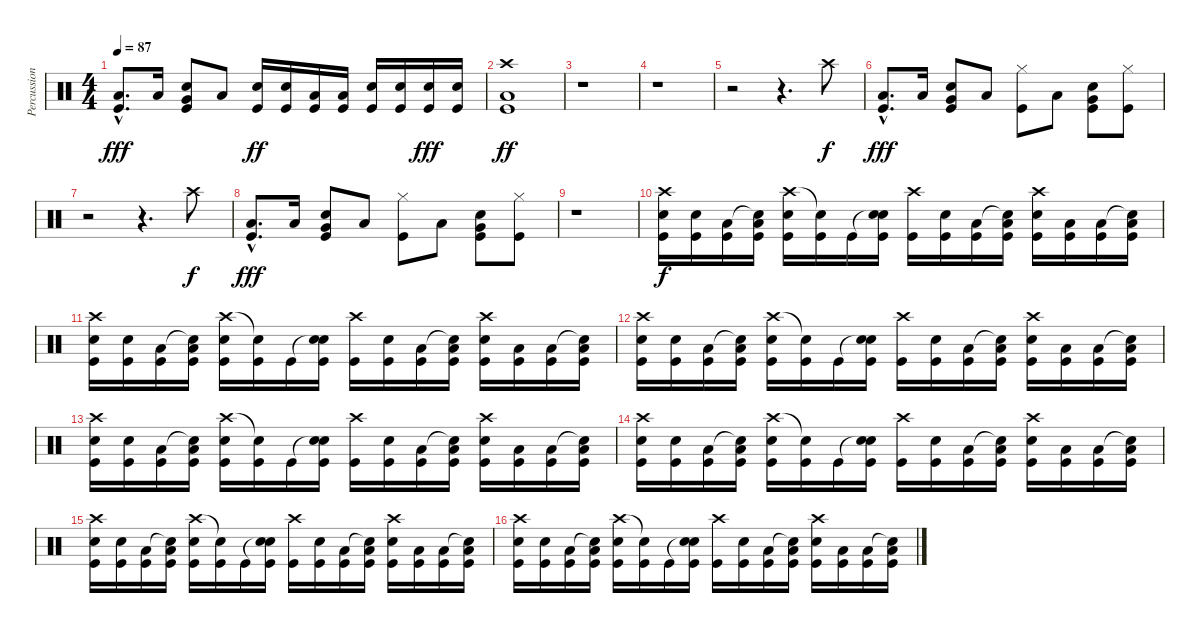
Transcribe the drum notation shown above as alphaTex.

\track ("Percussions" "Percussion") {instrument percussion}
\staff {score}
\articulation defaults
\ts (4 4)
\tempo 87
\clef neutral
\ks c
("Low Floor Tom (hit)"{hac} "Kick (hit)"{hac}).8{d dy fff} "Low Floor Tom (hit)".16 ("Snare (hit) 2" "Very Low Tom (hit)" "Kick (hit)").8 "Low Floor Tom (hit)".8 ("Snare (hit) 2" "Kick (hit)").16{dy ff} ("Snare (hit) 2" "Kick (hit)").16 ("Low Floor Tom (hit)" "Kick (hit)").16 ("Low Floor Tom (hit)" "Kick (hit)").16 ("Snare (hit) 2" "Kick (hit)").16 ("Snare (hit) 2" "Kick (hit)").16 ("Snare (hit) 2" "Kick (hit)").16{dy fff} ("Snare (hit) 2" "Kick (hit)").16 |
("Crash high (hit)" "Low Floor Tom (hit)" "Kick (hit)").1{dy ff} |
r.1 |
r.1 |
r.2 r.4{d} "Crash high (hit)".8{dy f} |
("Low Floor Tom (hit)"{hac} "Kick (hit)"{hac}).8{d dy fff} "Low Floor Tom (hit)".16 ("Snare (hit) 2" "Very Low Tom (hit)" "Kick (hit)").8 "Low Floor Tom (hit)".8 ("Hi-Hat (closed)" "Kick (hit)").8 "Low Floor Tom (hit)".8 ("Snare (hit) 2" "Very Low Tom (hit)" "Kick (hit)").8 ("Hi-Hat (closed)" "Kick (hit)").8 |
r.2 r.4{d} "Crash high (hit)".8{dy f} |
("Low Floor Tom (hit)"{hac} "Kick (hit)"{hac}).8{d dy fff} "Low Floor Tom (hit)".16 ("Snare (hit) 2" "Very Low Tom (hit)" "Kick (hit)").8 "Low Floor Tom (hit)".8 ("Hi-Hat (closed)" "Kick (hit)").8 "Low Floor Tom (hit)".8 ("Snare (hit) 2" "Very Low Tom (hit)" "Kick (hit)").8 ("Hi-Hat (closed)" "Kick (hit)").8 |
r.1 |
("Crash high (hit)" "Snare (hit) 2" "Kick (hit)").16{dy f} ("Snare (hit) 2" "Kick (hit)").16 ("Low Floor Tom (hit)" "Kick (hit)").16 ("Snare (hit)"{t} "Low Floor Tom (hit)" "Kick (hit)").16 ("Crash high (hit)" "Snare (hit) 2" "Kick (hit)").16 ("Snare (hit) 2"{t} "Kick (hit)").16 "Kick (hit)".16 ("Snare (hit)"{t} "Snare (hit) 2" "Kick (hit)").16 ("Crash high (hit)" "Kick (hit)").16 ("Snare (hit) 2" "Kick (hit)").16 ("Low Floor Tom (hit)" "Kick (hit)").16 ("Snare (hit)"{t} "Low Floor Tom (hit)" "Kick (hit)").16 ("Crash high (hit)" "Snare (hit) 2" "Kick (hit)").16 ("Low Floor Tom (hit)" "Kick (hit)").16 ("Low Floor Tom (hit)" "Kick (hit)").16 ("Snare (hit)"{t} "Low Floor Tom (hit)" "Kick (hit)").16 |
("Crash high (hit)" "Snare (hit) 2" "Kick (hit)").16 ("Snare (hit) 2" "Kick (hit)").16 ("Low Floor Tom (hit)" "Kick (hit)").16 ("Snare (hit)"{t} "Low Floor Tom (hit)" "Kick (hit)").16 ("Crash high (hit)" "Snare (hit) 2" "Kick (hit)").16 ("Snare (hit) 2"{t} "Kick (hit)").16 "Kick (hit)".16 ("Snare (hit)"{t} "Snare (hit) 2" "Kick (hit)").16 ("Crash high (hit)" "Kick (hit)").16 ("Snare (hit) 2" "Kick (hit)").16 ("Low Floor Tom (hit)" "Kick (hit)").16 ("Snare (hit)"{t} "Low Floor Tom (hit)" "Kick (hit)").16 ("Crash high (hit)" "Snare (hit) 2" "Kick (hit)").16 ("Low Floor Tom (hit)" "Kick (hit)").16 ("Low Floor Tom (hit)" "Kick (hit)").16 ("Snare (hit)"{t} "Low Floor Tom (hit)" "Kick (hit)").16 |
("Crash high (hit)" "Snare (hit) 2" "Kick (hit)").16 ("Snare (hit) 2" "Kick (hit)").16 ("Low Floor Tom (hit)" "Kick (hit)").16 ("Snare (hit)"{t} "Low Floor Tom (hit)" "Kick (hit)").16 ("Crash high (hit)" "Snare (hit) 2" "Kick (hit)").16 ("Snare (hit) 2"{t} "Kick (hit)").16 "Kick (hit)".16 ("Snare (hit)"{t} "Snare (hit) 2" "Kick (hit)").16 ("Crash high (hit)" "Kick (hit)").16 ("Snare (hit) 2" "Kick (hit)").16 ("Low Floor Tom (hit)" "Kick (hit)").16 ("Snare (hit)"{t} "Low Floor Tom (hit)" "Kick (hit)").16 ("Crash high (hit)" "Snare (hit) 2" "Kick (hit)").16 ("Low Floor Tom (hit)" "Kick (hit)").16 ("Low Floor Tom (hit)" "Kick (hit)").16 ("Snare (hit)"{t} "Low Floor Tom (hit)" "Kick (hit)").16 |
("Crash high (hit)" "Snare (hit) 2" "Kick (hit)").16 ("Snare (hit) 2" "Kick (hit)").16 ("Low Floor Tom (hit)" "Kick (hit)").16 ("Snare (hit)"{t} "Low Floor Tom (hit)" "Kick (hit)").16 ("Crash high (hit)" "Snare (hit) 2" "Kick (hit)").16 ("Snare (hit) 2"{t} "Kick (hit)").16 "Kick (hit)".16 ("Snare (hit)"{t} "Snare (hit) 2" "Kick (hit)").16 ("Crash high (hit)" "Kick (hit)").16 ("Snare (hit) 2" "Kick (hit)").16 ("Low Floor Tom (hit)" "Kick (hit)").16 ("Snare (hit)"{t} "Low Floor Tom (hit)" "Kick (hit)").16 ("Crash high (hit)" "Snare (hit) 2" "Kick (hit)").16 ("Low Floor Tom (hit)" "Kick (hit)").16 ("Low Floor Tom (hit)" "Kick (hit)").16 ("Snare (hit)"{t} "Low Floor Tom (hit)" "Kick (hit)").16 |
("Crash high (hit)" "Snare (hit) 2" "Kick (hit)").16 ("Snare (hit) 2" "Kick (hit)").16 ("Low Floor Tom (hit)" "Kick (hit)").16 ("Snare (hit)"{t} "Low Floor Tom (hit)" "Kick (hit)").16 ("Crash high (hit)" "Snare (hit) 2" "Kick (hit)").16 ("Snare (hit) 2"{t} "Kick (hit)").16 "Kick (hit)".16 ("Snare (hit)"{t} "Snare (hit) 2" "Kick (hit)").16 ("Crash high (hit)" "Kick (hit)").16 ("Snare (hit) 2" "Kick (hit)").16 ("Low Floor Tom (hit)" "Kick (hit)").16 ("Snare (hit)"{t} "Low Floor Tom (hit)" "Kick (hit)").16 ("Crash high (hit)" "Snare (hit) 2" "Kick (hit)").16 ("Low Floor Tom (hit)" "Kick (hit)").16 ("Low Floor Tom (hit)" "Kick (hit)").16 ("Snare (hit)"{t} "Low Floor Tom (hit)" "Kick (hit)").16 |
("Crash high (hit)" "Snare (hit) 2" "Kick (hit)").16 ("Snare (hit) 2" "Kick (hit)").16 ("Low Floor Tom (hit)" "Kick (hit)").16 ("Snare (hit)"{t} "Low Floor Tom (hit)" "Kick (hit)").16 ("Crash high (hit)" "Snare (hit) 2" "Kick (hit)").16 ("Snare (hit) 2"{t} "Kick (hit)").16 "Kick (hit)".16 ("Snare (hit)"{t} "Snare (hit) 2" "Kick (hit)").16 ("Crash high (hit)" "Kick (hit)").16 ("Snare (hit) 2" "Kick (hit)").16 ("Low Floor Tom (hit)" "Kick (hit)").16 ("Snare (hit)"{t} "Low Floor Tom (hit)" "Kick (hit)").16 ("Crash high (hit)" "Snare (hit) 2" "Kick (hit)").16 ("Low Floor Tom (hit)" "Kick (hit)").16 ("Low Floor Tom (hit)" "Kick (hit)").16 ("Snare (hit)"{t} "Low Floor Tom (hit)" "Kick (hit)").16 |
("Crash high (hit)" "Snare (hit) 2" "Kick (hit)").16 ("Snare (hit) 2" "Kick (hit)").16 ("Low Floor Tom (hit)" "Kick (hit)").16 ("Snare (hit)"{t} "Low Floor Tom (hit)" "Kick (hit)").16 ("Crash high (hit)" "Snare (hit) 2" "Kick (hit)").16 ("Snare (hit) 2"{t} "Kick (hit)").16 "Kick (hit)".16 ("Snare (hit)"{t} "Snare (hit) 2" "Kick (hit)").16 ("Crash high (hit)" "Kick (hit)").16 ("Snare (hit) 2" "Kick (hit)").16 ("Low Floor Tom (hit)" "Kick (hit)").16 ("Snare (hit)"{t} "Low Floor Tom (hit)" "Kick (hit)").16 ("Crash high (hit)" "Snare (hit) 2" "Kick (hit)").16 ("Low Floor Tom (hit)" "Kick (hit)").16 ("Low Floor Tom (hit)" "Kick (hit)").16 ("Snare (hit)"{t} "Low Floor Tom (hit)" "Kick (hit)").16
